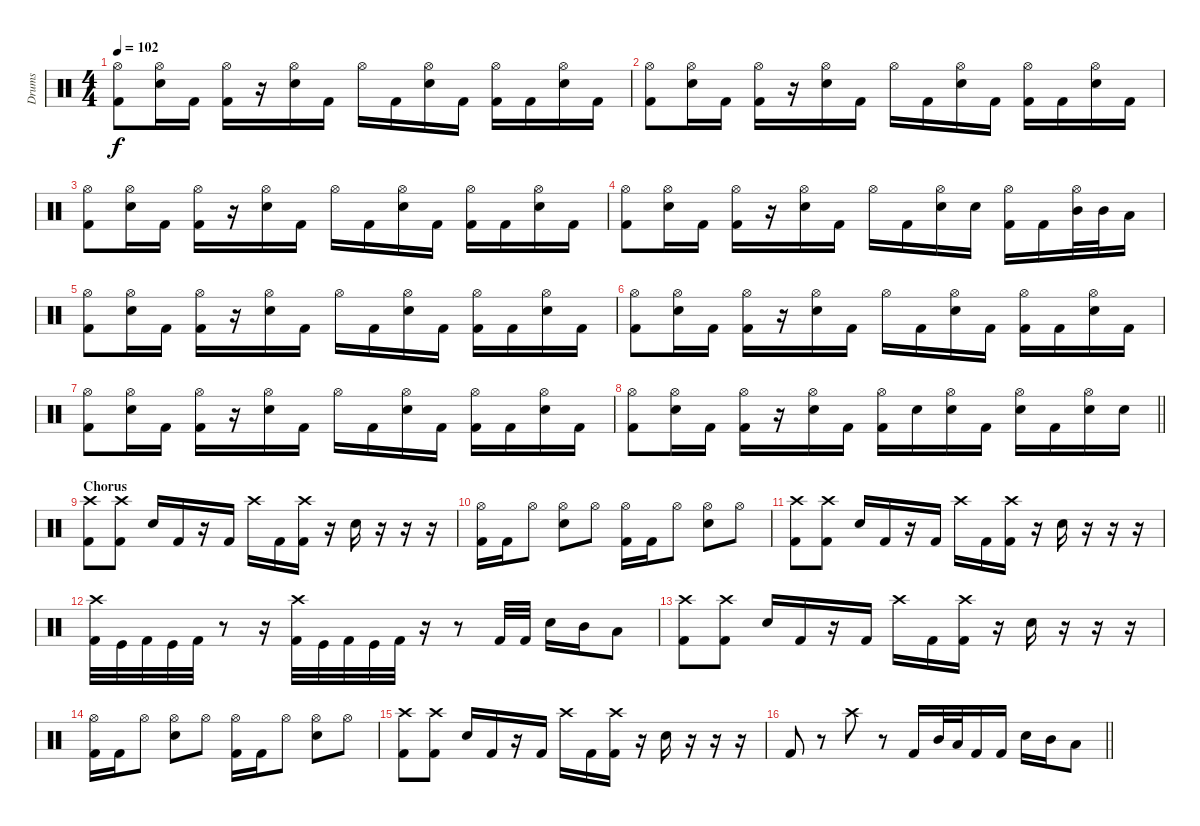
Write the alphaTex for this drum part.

\track ("Drums" "Drums") {instrument percussion}
\staff {score}
\articulation defaults
\ts (4 4)
\tempo 102
\clef neutral
\ks c
("Kick (hit) 2" "Hi-Hat (open)").8{dy f} ("Electric Snare (hit)" "Hi-Hat (open)").16 "Kick (hit) 2".16 ("Kick (hit) 2" "Hi-Hat (open)").16 r.16 ("Electric Snare (hit)" "Hi-Hat (open)").16 "Kick (hit) 2".16 "Hi-Hat (open)".16 "Kick (hit) 2".16 ("Electric Snare (hit)" "Hi-Hat (open)").16 "Kick (hit) 2".16 ("Kick (hit) 2" "Hi-Hat (open)").16 "Kick (hit) 2".16 ("Electric Snare (hit)" "Hi-Hat (open)").16 "Kick (hit) 2".16 |
("Kick (hit) 2" "Hi-Hat (open)").8 ("Electric Snare (hit)" "Hi-Hat (open)").16 "Kick (hit) 2".16 ("Kick (hit) 2" "Hi-Hat (open)").16 r.16 ("Electric Snare (hit)" "Hi-Hat (open)").16 "Kick (hit) 2".16 "Hi-Hat (open)".16 "Kick (hit) 2".16 ("Electric Snare (hit)" "Hi-Hat (open)").16 "Kick (hit) 2".16 ("Kick (hit) 2" "Hi-Hat (open)").16 "Kick (hit) 2".16 ("Electric Snare (hit)" "Hi-Hat (open)").16 "Kick (hit) 2".16 |
("Kick (hit) 2" "Hi-Hat (open)").8 ("Electric Snare (hit)" "Hi-Hat (open)").16 "Kick (hit) 2".16 ("Kick (hit) 2" "Hi-Hat (open)").16 r.16 ("Electric Snare (hit)" "Hi-Hat (open)").16 "Kick (hit) 2".16 "Hi-Hat (open)".16 "Kick (hit) 2".16 ("Electric Snare (hit)" "Hi-Hat (open)").16 "Kick (hit) 2".16 ("Kick (hit) 2" "Hi-Hat (open)").16 "Kick (hit) 2".16 ("Electric Snare (hit)" "Hi-Hat (open)").16 "Kick (hit) 2".16 |
("Kick (hit) 2" "Hi-Hat (open)").8 ("Electric Snare (hit)" "Hi-Hat (open)").16 "Kick (hit) 2".16 ("Kick (hit) 2" "Hi-Hat (open)").16 r.16 ("Electric Snare (hit)" "Hi-Hat (open)").16 "Kick (hit) 2".16 "Hi-Hat (open)".16 "Kick (hit) 2".16 ("Electric Snare (hit)" "Hi-Hat (open)").16 "Electric Snare (hit)".16 ("Kick (hit) 2" "Hi-Hat (open)").16 "Kick (hit) 2".16 ("Mid Tom (hit)" "Hi-Hat (open)").32 "Mid Tom (hit)".32 "Low Tom (hit)".16 |
("Kick (hit) 2" "Hi-Hat (open)").8 ("Electric Snare (hit)" "Hi-Hat (open)").16 "Kick (hit) 2".16 ("Kick (hit) 2" "Hi-Hat (open)").16 r.16 ("Electric Snare (hit)" "Hi-Hat (open)").16 "Kick (hit) 2".16 "Hi-Hat (open)".16 "Kick (hit) 2".16 ("Electric Snare (hit)" "Hi-Hat (open)").16 "Kick (hit) 2".16 ("Kick (hit) 2" "Hi-Hat (open)").16 "Kick (hit) 2".16 ("Electric Snare (hit)" "Hi-Hat (open)").16 "Kick (hit) 2".16 |
("Kick (hit) 2" "Hi-Hat (open)").8 ("Electric Snare (hit)" "Hi-Hat (open)").16 "Kick (hit) 2".16 ("Kick (hit) 2" "Hi-Hat (open)").16 r.16 ("Electric Snare (hit)" "Hi-Hat (open)").16 "Kick (hit) 2".16 "Hi-Hat (open)".16 "Kick (hit) 2".16 ("Electric Snare (hit)" "Hi-Hat (open)").16 "Kick (hit) 2".16 ("Kick (hit) 2" "Hi-Hat (open)").16 "Kick (hit) 2".16 ("Electric Snare (hit)" "Hi-Hat (open)").16 "Kick (hit) 2".16 |
("Kick (hit) 2" "Hi-Hat (open)").8 ("Electric Snare (hit)" "Hi-Hat (open)").16 "Kick (hit) 2".16 ("Kick (hit) 2" "Hi-Hat (open)").16 r.16 ("Electric Snare (hit)" "Hi-Hat (open)").16 "Kick (hit) 2".16 "Hi-Hat (open)".16 "Kick (hit) 2".16 ("Electric Snare (hit)" "Hi-Hat (open)").16 "Kick (hit) 2".16 ("Kick (hit) 2" "Hi-Hat (open)").16 "Kick (hit) 2".16 ("Electric Snare (hit)" "Hi-Hat (open)").16 "Kick (hit) 2".16 |
\barLineRight lightlight
("Kick (hit) 2" "Hi-Hat (open)").8 ("Electric Snare (hit)" "Hi-Hat (open)").16 "Kick (hit) 2".16 ("Kick (hit) 2" "Hi-Hat (open)").16 r.16 ("Electric Snare (hit)" "Hi-Hat (open)").16 "Kick (hit) 2".16 ("Kick (hit) 2" "Hi-Hat (open)").16 "Electric Snare (hit)".16 ("Electric Snare (hit)" "Hi-Hat (open)").16 "Kick (hit) 2".16 ("Electric Snare (hit)" "Hi-Hat (open)").16 "Kick (hit) 2".16 ("Electric Snare (hit)" "Hi-Hat (open)").16 "Electric Snare (hit)".16 |
\section ("" "Chorus")
("Kick (hit) 2" "Crash high (hit)").8 ("Kick (hit) 2" "Crash high (hit)").8 "Electric Snare (hit)".16 "Kick (hit) 2".16 r.16 "Kick (hit) 2".16 "Crash high (hit)".16 "Kick (hit) 2".16 ("Kick (hit) 2" "Crash high (hit)").16 r.16 "Electric Snare (hit)".16 r.16 r.16 r.16 |
("Kick (hit) 2" "Hi-Hat (open)").16 "Kick (hit) 2".16 "Hi-Hat (open)".8 ("Electric Snare (hit)" "Hi-Hat (open)").8 "Hi-Hat (open)".8 ("Kick (hit) 2" "Hi-Hat (open)").16 "Kick (hit) 2".16 "Hi-Hat (open)".8 ("Electric Snare (hit)" "Hi-Hat (open)").8 "Hi-Hat (open)".8 |
("Kick (hit) 2" "Crash high (hit)").8 ("Kick (hit) 2" "Crash high (hit)").8 "Electric Snare (hit)".16 "Kick (hit) 2".16 r.16 "Kick (hit) 2".16 "Crash high (hit)".16 "Kick (hit) 2".16 ("Kick (hit) 2" "Crash high (hit)").16 r.16 "Electric Snare (hit)".16 r.16 r.16 r.16 |
("Kick (hit) 2" "Crash high (hit)").32 "Kick (hit)".32 "Kick (hit) 2".32 "Kick (hit)".32 "Kick (hit) 2".32 r.8 r.16 ("Kick (hit) 2" "Crash high (hit)").32 "Kick (hit)".32 "Kick (hit) 2".32 "Kick (hit)".32 "Kick (hit) 2".32 r.16 r.8 "Kick (hit) 2".32 "Kick (hit) 2".32 "Electric Snare (hit)".16 "Mid Tom (hit)".16 "Low Tom (hit)".8 |
("Kick (hit) 2" "Crash high (hit)").8 ("Kick (hit) 2" "Crash high (hit)").8 "Electric Snare (hit)".16 "Kick (hit) 2".16 r.16 "Kick (hit) 2".16 "Crash high (hit)".16 "Kick (hit) 2".16 ("Kick (hit) 2" "Crash high (hit)").16 r.16 "Electric Snare (hit)".16 r.16 r.16 r.16 |
("Kick (hit) 2" "Hi-Hat (open)").16 "Kick (hit) 2".16 "Hi-Hat (open)".8 ("Electric Snare (hit)" "Hi-Hat (open)").8 "Hi-Hat (open)".8 ("Kick (hit) 2" "Hi-Hat (open)").16 "Kick (hit) 2".16 "Hi-Hat (open)".8 ("Electric Snare (hit)" "Hi-Hat (open)").8 "Hi-Hat (open)".8 |
("Kick (hit) 2" "Crash high (hit)").8 ("Kick (hit) 2" "Crash high (hit)").8 "Electric Snare (hit)".16 "Kick (hit) 2".16 r.16 "Kick (hit) 2".16 "Crash high (hit)".16 "Kick (hit) 2".16 ("Kick (hit) 2" "Crash high (hit)").16 r.16 "Electric Snare (hit)".16 r.16 r.16 r.16 |
\barLineRight lightlight "Kick (hit) 2".8
r.8 "Crash high (hit)".8 r.8 "Kick (hit) 2".16 "Mid Tom (hit)".32 "Low Tom (hit)".32 "Kick (hit) 2".16 "Kick (hit) 2".16 "Electric Snare (hit)".16 "Mid Tom (hit)".16 "Low Tom (hit)".8
